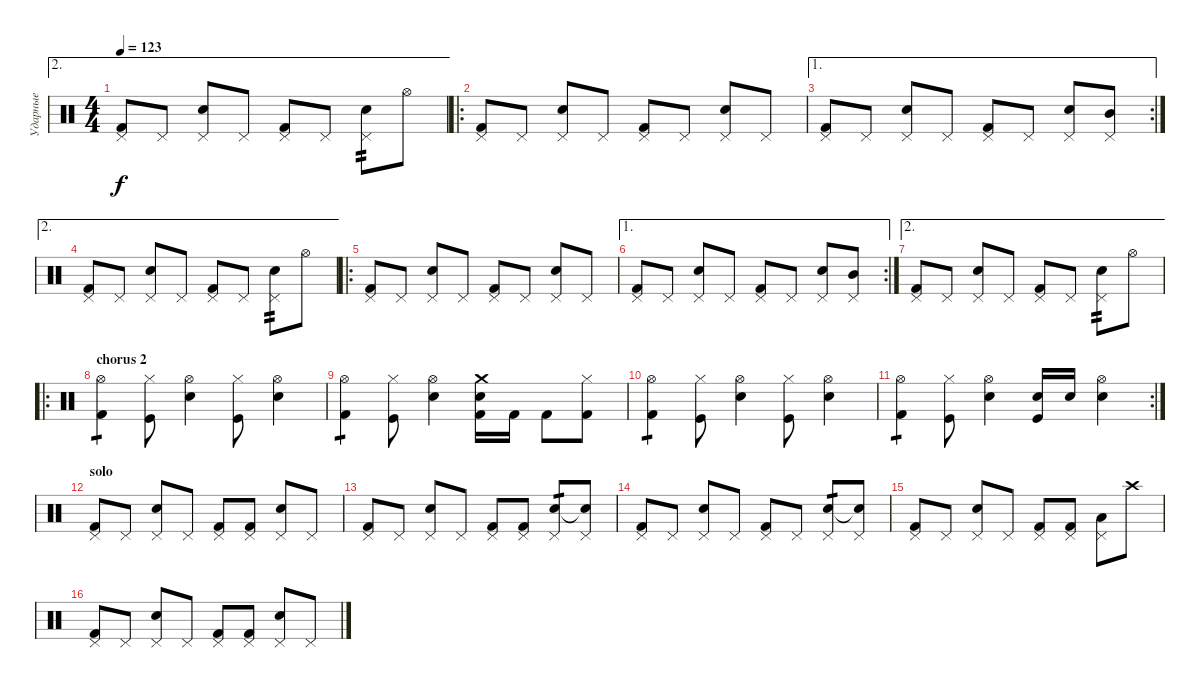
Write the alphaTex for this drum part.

\track ("Ударные" "Ударные") {instrument percussion}
\staff {score}
\articulation defaults
\ae 2
\ts (4 4)
\tempo 123
\clef neutral
\ks c
("Pedal Hi-Hat (hit)" "Kick (hit) 2").8{dy f} "Pedal Hi-Hat (hit)".8 ("Pedal Hi-Hat (hit)" "Snare (hit) 2").8 "Pedal Hi-Hat (hit)".8 ("Pedal Hi-Hat (hit)" "Kick (hit) 2").8 "Pedal Hi-Hat (hit)".8 ("Pedal Hi-Hat (hit)" "Snare (hit) 2").8{tp 2} "Hi-Hat (open)".8 |
\ro
("Pedal Hi-Hat (hit)" "Kick (hit) 2").8 "Pedal Hi-Hat (hit)".8 ("Pedal Hi-Hat (hit)" "Snare (hit) 2").8 "Pedal Hi-Hat (hit)".8 ("Pedal Hi-Hat (hit)" "Kick (hit) 2").8 "Pedal Hi-Hat (hit)".8 ("Pedal Hi-Hat (hit)" "Snare (hit) 2").8 "Pedal Hi-Hat (hit)".8 |
\ae 1
\rc 2
("Pedal Hi-Hat (hit)" "Kick (hit) 2").8 "Pedal Hi-Hat (hit)".8 ("Pedal Hi-Hat (hit)" "Snare (hit) 2").8 "Pedal Hi-Hat (hit)".8 ("Pedal Hi-Hat (hit)" "Kick (hit) 2").8 "Pedal Hi-Hat (hit)".8 ("Pedal Hi-Hat (hit)" "Snare (hit) 2").8 ("Pedal Hi-Hat (hit)" "Mid Tom (hit)").8 |
\ae 2
("Pedal Hi-Hat (hit)" "Kick (hit) 2").8 "Pedal Hi-Hat (hit)".8 ("Pedal Hi-Hat (hit)" "Snare (hit) 2").8 "Pedal Hi-Hat (hit)".8 ("Pedal Hi-Hat (hit)" "Kick (hit) 2").8 "Pedal Hi-Hat (hit)".8 ("Pedal Hi-Hat (hit)" "Snare (hit) 2").8{tp 2} "Hi-Hat (open)".8 |
\ro
("Pedal Hi-Hat (hit)" "Kick (hit) 2").8 "Pedal Hi-Hat (hit)".8 ("Pedal Hi-Hat (hit)" "Snare (hit) 2").8 "Pedal Hi-Hat (hit)".8 ("Pedal Hi-Hat (hit)" "Kick (hit) 2").8 "Pedal Hi-Hat (hit)".8 ("Pedal Hi-Hat (hit)" "Snare (hit) 2").8 "Pedal Hi-Hat (hit)".8 |
\ae 1
\rc 2
("Pedal Hi-Hat (hit)" "Kick (hit) 2").8 "Pedal Hi-Hat (hit)".8 ("Pedal Hi-Hat (hit)" "Snare (hit) 2").8 "Pedal Hi-Hat (hit)".8 ("Pedal Hi-Hat (hit)" "Kick (hit) 2").8 "Pedal Hi-Hat (hit)".8 ("Pedal Hi-Hat (hit)" "Snare (hit) 2").8 ("Pedal Hi-Hat (hit)" "Mid Tom (hit)").8 |
\ae 2
("Pedal Hi-Hat (hit)" "Kick (hit) 2").8 "Pedal Hi-Hat (hit)".8 ("Pedal Hi-Hat (hit)" "Snare (hit) 2").8 "Pedal Hi-Hat (hit)".8 ("Pedal Hi-Hat (hit)" "Kick (hit) 2").8 "Pedal Hi-Hat (hit)".8 ("Pedal Hi-Hat (hit)" "Snare (hit) 2").8{tp 2} "Hi-Hat (open)".8 |
\ro
\section ("" "chorus 2")
("Hi-Hat (open)" "Kick (hit) 2").4{tp 1} ("Hi-Hat (closed)" "Kick (hit)").8 ("Hi-Hat (open)" "Snare (hit) 2").4 ("Hi-Hat (closed)" "Kick (hit)").8 ("Hi-Hat (open)" "Snare (hit) 2").4 |
("Hi-Hat (open)" "Kick (hit) 2").4{tp 1} ("Hi-Hat (closed)" "Kick (hit)").8 ("Hi-Hat (open)" "Snare (hit) 2").4 ("Crash medium (hit)" "Snare (hit) 2" "Kick (hit) 2").16 "Kick (hit) 2".16 "Kick (hit) 2".8 ("Hi-Hat (closed)" "Kick (hit) 2").8 |
("Hi-Hat (open)" "Kick (hit) 2").4{tp 1} ("Hi-Hat (closed)" "Kick (hit)").8 ("Hi-Hat (open)" "Snare (hit) 2").4 ("Hi-Hat (closed)" "Kick (hit)").8 ("Hi-Hat (open)" "Snare (hit) 2").4 |
\rc 2
("Hi-Hat (open)" "Kick (hit) 2").4{tp 1} ("Hi-Hat (closed)" "Kick (hit)").8 ("Hi-Hat (open)" "Snare (hit) 2").4 ("Snare (hit) 2" "Kick (hit)").16 "Snare (hit) 2".16 ("Hi-Hat (open)" "Snare (hit) 2").4 |
\section ("" "solo")
("Pedal Hi-Hat (hit)" "Kick (hit) 2").8 "Pedal Hi-Hat (hit)".8 ("Pedal Hi-Hat (hit)" "Snare (hit) 2").8 "Pedal Hi-Hat (hit)".8 ("Pedal Hi-Hat (hit)" "Kick (hit) 2").8 ("Pedal Hi-Hat (hit)" "Kick (hit) 2").8 ("Pedal Hi-Hat (hit)" "Snare (hit) 2").8 "Pedal Hi-Hat (hit)".8 |
("Pedal Hi-Hat (hit)" "Kick (hit) 2").8 "Pedal Hi-Hat (hit)".8 ("Pedal Hi-Hat (hit)" "Snare (hit) 2").8 "Pedal Hi-Hat (hit)".8 ("Pedal Hi-Hat (hit)" "Kick (hit) 2").8 ("Pedal Hi-Hat (hit)" "Kick (hit) 2").8 ("Pedal Hi-Hat (hit)" "Snare (hit) 2").8{tp 1} ("Pedal Hi-Hat (hit)" "Snare (hit)"{t}).8 |
("Pedal Hi-Hat (hit)" "Kick (hit) 2").8 "Pedal Hi-Hat (hit)".8 ("Pedal Hi-Hat (hit)" "Snare (hit) 2").8 "Pedal Hi-Hat (hit)".8 ("Pedal Hi-Hat (hit)" "Kick (hit) 2").8 "Pedal Hi-Hat (hit)".8 ("Pedal Hi-Hat (hit)" "Snare (hit) 2").8{tp 1} ("Pedal Hi-Hat (hit)" "Snare (hit)"{t}).8 |
("Pedal Hi-Hat (hit)" "Kick (hit) 2").8 "Pedal Hi-Hat (hit)".8 ("Pedal Hi-Hat (hit)" "Snare (hit) 2").8 "Pedal Hi-Hat (hit)".8 ("Pedal Hi-Hat (hit)" "Kick (hit) 2").8 ("Pedal Hi-Hat (hit)" "Kick (hit) 2").8 ("Pedal Hi-Hat (hit)" "Low Tom (hit)").8 "Crash high (hit)".8 |
("Pedal Hi-Hat (hit)" "Kick (hit) 2").8 "Pedal Hi-Hat (hit)".8 ("Pedal Hi-Hat (hit)" "Snare (hit) 2").8 "Pedal Hi-Hat (hit)".8 ("Pedal Hi-Hat (hit)" "Kick (hit) 2").8 ("Pedal Hi-Hat (hit)" "Kick (hit) 2").8 ("Pedal Hi-Hat (hit)" "Snare (hit) 2").8 "Pedal Hi-Hat (hit)".8
